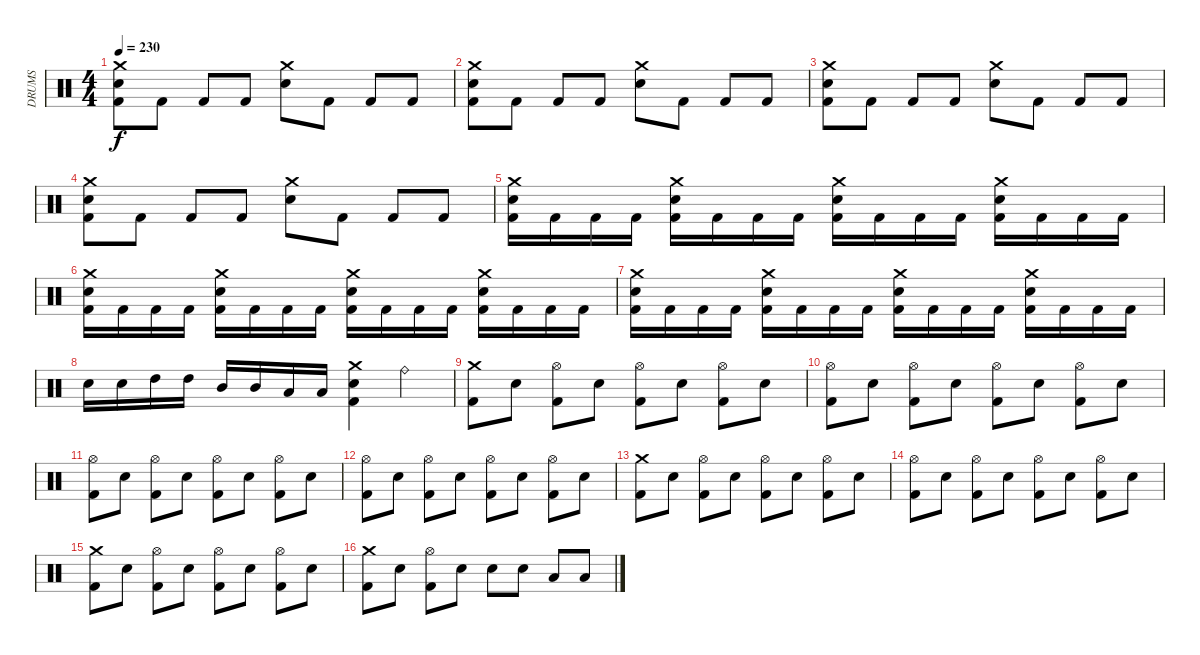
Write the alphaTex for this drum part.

\track ("DRUMS" "DRUMS") {instrument percussion}
\staff {score}
\articulation defaults
\ts (4 4)
\tempo 230
\clef neutral
\ks c
("Crash medium (hit)" "Snare (hit) 2" "Kick (hit) 2").8{dy f} "Kick (hit) 2".8 "Kick (hit) 2".8 "Kick (hit) 2".8 ("Crash medium (hit)" "Snare (hit) 2").8 "Kick (hit) 2".8 "Kick (hit) 2".8 "Kick (hit) 2".8 |
("Crash medium (hit)" "Snare (hit) 2" "Kick (hit) 2").8 "Kick (hit) 2".8 "Kick (hit) 2".8 "Kick (hit) 2".8 ("Crash medium (hit)" "Snare (hit) 2").8 "Kick (hit) 2".8 "Kick (hit) 2".8 "Kick (hit) 2".8 |
("Crash medium (hit)" "Snare (hit) 2" "Kick (hit) 2").8 "Kick (hit) 2".8 "Kick (hit) 2".8 "Kick (hit) 2".8 ("Crash medium (hit)" "Snare (hit) 2").8 "Kick (hit) 2".8 "Kick (hit) 2".8 "Kick (hit) 2".8 |
("Crash medium (hit)" "Snare (hit) 2" "Kick (hit) 2").8 "Kick (hit) 2".8 "Kick (hit) 2".8 "Kick (hit) 2".8 ("Crash medium (hit)" "Snare (hit) 2").8 "Kick (hit) 2".8 "Kick (hit) 2".8 "Kick (hit) 2".8 |
("Crash medium (hit)" "Snare (hit) 2" "Kick (hit) 2").16 "Kick (hit) 2".16 "Kick (hit) 2".16 "Kick (hit) 2".16 ("Crash medium (hit)" "Snare (hit) 2" "Kick (hit) 2").16 "Kick (hit) 2".16 "Kick (hit) 2".16 "Kick (hit) 2".16 ("Crash medium (hit)" "Snare (hit) 2" "Kick (hit) 2").16 "Kick (hit) 2".16 "Kick (hit) 2".16 "Kick (hit) 2".16 ("Crash medium (hit)" "Snare (hit) 2" "Kick (hit) 2").16 "Kick (hit) 2".16 "Kick (hit) 2".16 "Kick (hit) 2".16 |
("Crash medium (hit)" "Snare (hit) 2" "Kick (hit) 2").16 "Kick (hit) 2".16 "Kick (hit) 2".16 "Kick (hit) 2".16 ("Crash medium (hit)" "Snare (hit) 2" "Kick (hit) 2").16 "Kick (hit) 2".16 "Kick (hit) 2".16 "Kick (hit) 2".16 ("Crash medium (hit)" "Snare (hit) 2" "Kick (hit) 2").16 "Kick (hit) 2".16 "Kick (hit) 2".16 "Kick (hit) 2".16 ("Crash medium (hit)" "Snare (hit) 2" "Kick (hit) 2").16 "Kick (hit) 2".16 "Kick (hit) 2".16 "Kick (hit) 2".16 |
("Crash medium (hit)" "Snare (hit) 2" "Kick (hit) 2").16 "Kick (hit) 2".16 "Kick (hit) 2".16 "Kick (hit) 2".16 ("Crash medium (hit)" "Snare (hit) 2" "Kick (hit) 2").16 "Kick (hit) 2".16 "Kick (hit) 2".16 "Kick (hit) 2".16 ("Crash medium (hit)" "Snare (hit) 2" "Kick (hit) 2").16 "Kick (hit) 2".16 "Kick (hit) 2".16 "Kick (hit) 2".16 ("Crash medium (hit)" "Snare (hit) 2" "Kick (hit) 2").16 "Kick (hit) 2".16 "Kick (hit) 2".16 "Kick (hit) 2".16 |
"Snare (hit) 2".16 "Snare (hit) 2".16 "High Tom (hit)".16 "High Tom (hit)".16 "Mid Tom (hit)".16 "Mid Tom (hit)".16 "Low Tom (hit)".16 "Low Tom (hit)".16 ("Crash medium (hit)" "Snare (hit) 2" "Kick (hit) 2").4 "Ride (bell)".4 |
("Crash medium (hit)" "Kick (hit) 2").8 "Snare (hit) 2".8 ("Hi-Hat (open)" "Kick (hit) 2").8 "Snare (hit) 2".8 ("Hi-Hat (open)" "Kick (hit) 2").8 "Snare (hit) 2".8 ("Hi-Hat (open)" "Kick (hit) 2").8 "Snare (hit) 2".8 |
("Hi-Hat (open)" "Kick (hit) 2").8 "Snare (hit) 2".8 ("Hi-Hat (open)" "Kick (hit) 2").8 "Snare (hit) 2".8 ("Hi-Hat (open)" "Kick (hit) 2").8 "Snare (hit) 2".8 ("Hi-Hat (open)" "Kick (hit) 2").8 "Snare (hit) 2".8 |
("Hi-Hat (open)" "Kick (hit) 2").8 "Snare (hit) 2".8 ("Hi-Hat (open)" "Kick (hit) 2").8 "Snare (hit) 2".8 ("Hi-Hat (open)" "Kick (hit) 2").8 "Snare (hit) 2".8 ("Hi-Hat (open)" "Kick (hit) 2").8 "Snare (hit) 2".8 |
("Hi-Hat (open)" "Kick (hit) 2").8 "Snare (hit) 2".8 ("Hi-Hat (open)" "Kick (hit) 2").8 "Snare (hit) 2".8 ("Hi-Hat (open)" "Kick (hit) 2").8 "Snare (hit) 2".8 ("Hi-Hat (open)" "Kick (hit) 2").8 "Snare (hit) 2".8 |
("Crash medium (hit)" "Kick (hit) 2").8 "Snare (hit) 2".8 ("Hi-Hat (open)" "Kick (hit) 2").8 "Snare (hit) 2".8 ("Hi-Hat (open)" "Kick (hit) 2").8 "Snare (hit) 2".8 ("Hi-Hat (open)" "Kick (hit) 2").8 "Snare (hit) 2".8 |
("Hi-Hat (open)" "Kick (hit) 2").8 "Snare (hit) 2".8 ("Hi-Hat (open)" "Kick (hit) 2").8 "Snare (hit) 2".8 ("Hi-Hat (open)" "Kick (hit) 2").8 "Snare (hit) 2".8 ("Hi-Hat (open)" "Kick (hit) 2").8 "Snare (hit) 2".8 |
("Crash medium (hit)" "Kick (hit) 2").8 "Snare (hit) 2".8 ("Hi-Hat (open)" "Kick (hit) 2").8 "Snare (hit) 2".8 ("Hi-Hat (open)" "Kick (hit) 2").8 "Snare (hit) 2".8 ("Hi-Hat (open)" "Kick (hit) 2").8 "Snare (hit) 2".8 |
("Crash medium (hit)" "Kick (hit) 2").8 "Snare (hit) 2".8 ("Hi-Hat (open)" "Kick (hit) 2").8 "Snare (hit) 2".8 "Snare (hit) 2".8 "Snare (hit) 2".8 "Low Tom (hit)".8 "Low Tom (hit)".8
